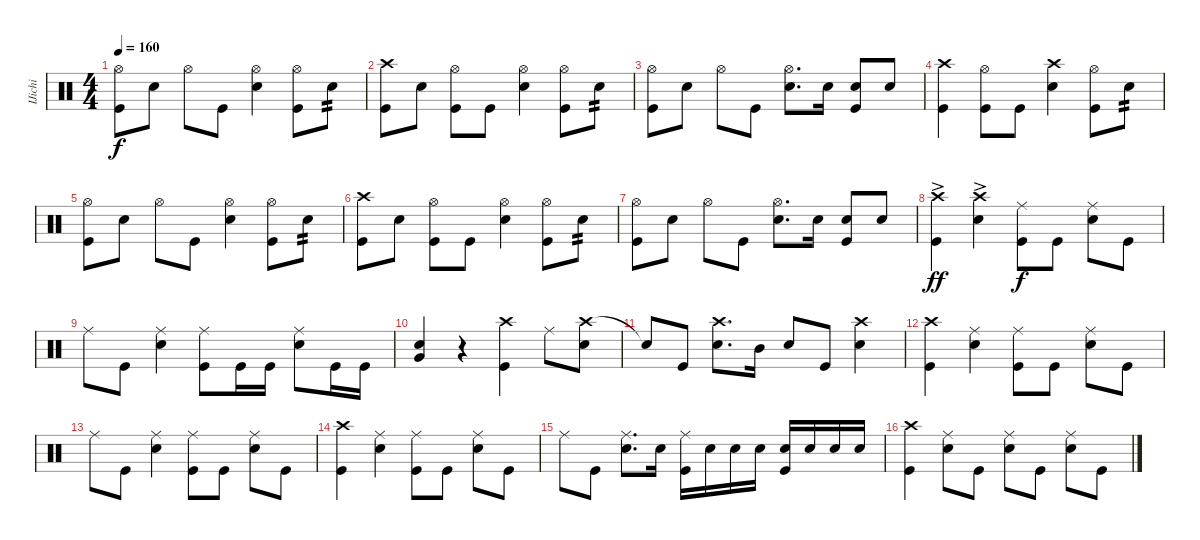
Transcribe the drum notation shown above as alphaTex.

\track ("IJichi" "IJichi") {instrument percussion}
\staff {score}
\articulation defaults
\ts (4 4)
\tempo 160
\clef neutral
\ks c
("Hi-Hat (open)" "Kick (hit)").8{dy f} "Snare (hit) 2".8 "Hi-Hat (open)".8 "Kick (hit)".8 ("Hi-Hat (open)" "Snare (hit) 2").4 ("Hi-Hat (open)" "Kick (hit)").8 "Snare (hit) 2".8{tp 2} |
("Crash high (hit)" "Kick (hit)").8 "Snare (hit) 2".8 ("Hi-Hat (open)" "Kick (hit)").8 "Kick (hit)".8 ("Hi-Hat (open)" "Snare (hit) 2").4 ("Hi-Hat (open)" "Kick (hit)").8 "Snare (hit) 2".8{tp 2} |
("Hi-Hat (open)" "Kick (hit)").8 "Snare (hit) 2".8 "Hi-Hat (open)".8 "Kick (hit)".8 ("Hi-Hat (open)" "Snare (hit) 2").8{d} "Snare (hit) 2".16 ("Snare (hit) 2" "Kick (hit)").8 "Snare (hit) 2".8 |
("Crash high (hit)" "Kick (hit)").4 ("Hi-Hat (open)" "Kick (hit)").8 "Kick (hit)".8 ("Crash high (hit)" "Snare (hit) 2").4 ("Hi-Hat (open)" "Kick (hit)").8 "Snare (hit) 2".8{tp 2} |
("Hi-Hat (open)" "Kick (hit)").8 "Snare (hit) 2".8 "Hi-Hat (open)".8 "Kick (hit)".8 ("Hi-Hat (open)" "Snare (hit) 2").4 ("Hi-Hat (open)" "Kick (hit)").8 "Snare (hit) 2".8{tp 2} |
("Crash high (hit)" "Kick (hit)").8 "Snare (hit) 2".8 ("Hi-Hat (open)" "Kick (hit)").8 "Kick (hit)".8 ("Hi-Hat (open)" "Snare (hit) 2").4 ("Hi-Hat (open)" "Kick (hit)").8 "Snare (hit) 2".8{tp 2} |
("Hi-Hat (open)" "Kick (hit)").8 "Snare (hit) 2".8 "Hi-Hat (open)".8 "Kick (hit)".8 ("Hi-Hat (open)" "Snare (hit) 2").8{d} "Snare (hit) 2".16 ("Snare (hit) 2" "Kick (hit)").8 "Snare (hit) 2".8 |
("Crash high (hit)"{ac} "Kick (hit)").4{dy ff} ("Crash high (hit)"{ac} "Snare (hit) 2").4 ("Ride (middle)" "Kick (hit)").8{dy f} "Kick (hit)".8 ("Ride (middle)" "Snare (hit) 2").8 "Kick (hit)".8 |
"Ride (middle)".8 "Kick (hit)".8 ("Ride (middle)" "Snare (hit) 2").4 ("Ride (middle)" "Kick (hit)").8 "Kick (hit)".16 "Kick (hit)".16 ("Ride (middle)" "Snare (hit) 2").8 "Kick (hit)".16 "Kick (hit)".16 |
("Snare (hit) 2" "Very Low Tom (hit)").4 r.4 ("Crash high (hit)" "Kick (hit)").4 "Ride (middle)".8 ("Crash high (hit)" "Snare (hit) 2").8 |
"Snare (hit)"{t}.8 "Kick (hit)".8 ("Crash high (hit)" "Snare (hit) 2").8{d} "Mid Tom (hit)".16 "Snare (hit) 2".8 "Kick (hit)".8 ("Crash high (hit)" "Snare (hit) 2").4 |
("Crash high (hit)" "Kick (hit)").4 ("Ride (middle)" "Snare (hit) 2").4 ("Ride (middle)" "Kick (hit)").8 "Kick (hit)".8 ("Ride (middle)" "Snare (hit) 2").8 "Kick (hit)".8 |
"Ride (middle)".8 "Kick (hit)".8 ("Ride (middle)" "Snare (hit) 2").4 ("Ride (middle)" "Kick (hit)").8 "Kick (hit)".8 ("Ride (middle)" "Snare (hit) 2").8 "Kick (hit)".8 |
("Crash high (hit)" "Kick (hit)").4 ("Ride (middle)" "Snare (hit) 2").4 ("Ride (middle)" "Kick (hit)").8 "Kick (hit)".8 ("Ride (middle)" "Snare (hit) 2").8 "Kick (hit)".8 |
"Ride (middle)".8 "Kick (hit)".8 ("Ride (middle)" "Snare (hit) 2").8{d} "Snare (hit) 2".16 ("Ride (middle)" "Kick (hit)").16 "Snare (hit) 2".16 "Snare (hit) 2".16 "Snare (hit) 2".16 ("Snare (hit) 2" "Kick (hit)").16 "Snare (hit) 2".16 "Snare (hit) 2".16 "Snare (hit) 2".16 |
("Crash high (hit)" "Kick (hit)").4 ("Ride (middle)" "Snare (hit) 2").8 "Kick (hit)".8 ("Ride (middle)" "Snare (hit) 2").8 "Kick (hit)".8 ("Ride (middle)" "Snare (hit) 2").8 "Kick (hit)".8
